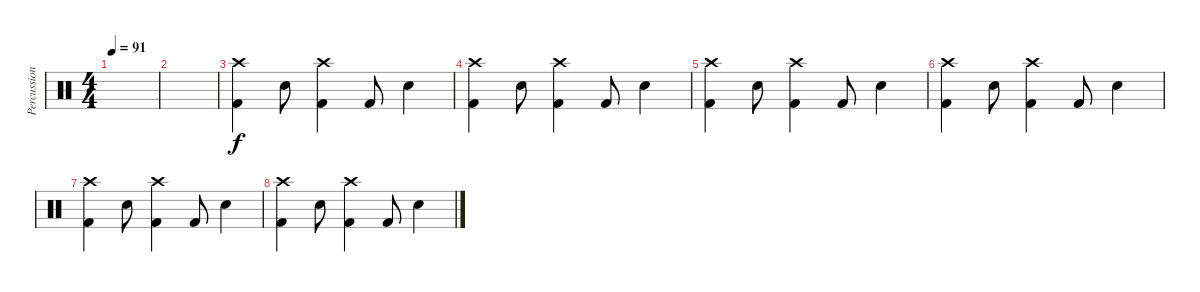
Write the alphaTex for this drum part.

\track ("Percussion" "Percussion") {instrument percussion}
\staff {score}
\articulation defaults
\ts (4 4)
\tempo 91
\clef neutral
\ks c
|
|
("Crash high (hit)" "Kick (hit) 2").4 "Snare (hit) 2".8 ("Crash high (hit)" "Kick (hit) 2").4 "Kick (hit) 2".8 "Snare (hit) 2".4 |
("Crash high (hit)" "Kick (hit) 2").4 "Snare (hit) 2".8 ("Crash high (hit)" "Kick (hit) 2").4 "Kick (hit) 2".8 "Snare (hit) 2".4 |
("Crash high (hit)" "Kick (hit) 2").4 "Snare (hit) 2".8 ("Crash high (hit)" "Kick (hit) 2").4 "Kick (hit) 2".8 "Snare (hit) 2".4 |
("Crash high (hit)" "Kick (hit) 2").4 "Snare (hit) 2".8 ("Crash high (hit)" "Kick (hit) 2").4 "Kick (hit) 2".8 "Snare (hit) 2".4 |
("Crash high (hit)" "Kick (hit) 2").4 "Snare (hit) 2".8 ("Crash high (hit)" "Kick (hit) 2").4 "Kick (hit) 2".8 "Snare (hit) 2".4 |
("Crash high (hit)" "Kick (hit) 2").4 "Snare (hit) 2".8 ("Crash high (hit)" "Kick (hit) 2").4 "Kick (hit) 2".8 "Snare (hit) 2".4
